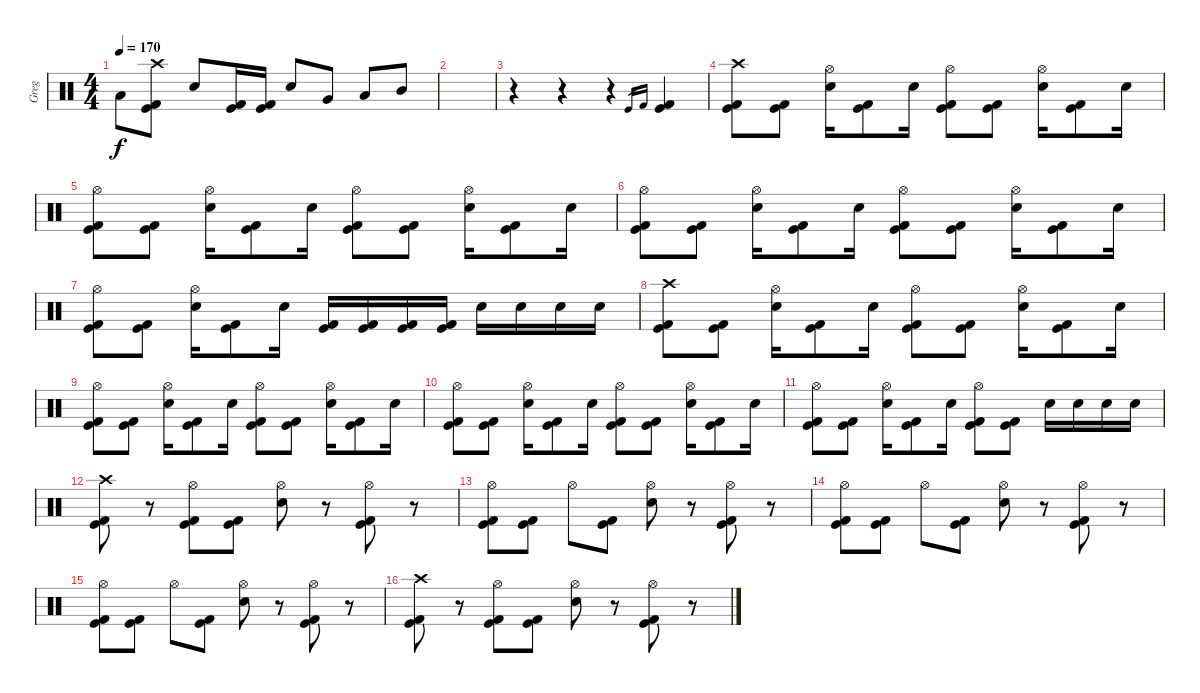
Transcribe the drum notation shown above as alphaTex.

\track ("Greg" "Greg") {instrument percussion}
\staff {score}
\articulation defaults
\ts (4 4)
\tempo 170
\clef neutral
\ks c "Low Tom (hit)".8{dy f}
("Crash high (hit)" "Kick (hit)" "Kick (hit) 2").8 "Snare (hit) 2".8 ("Kick (hit)" "Kick (hit) 2").16 ("Kick (hit)" "Kick (hit) 2").16 "Snare (hit) 2".8 "Very Low Tom (hit)".8 "Low Tom (hit)".8 "Mid Tom (hit)".8 |
|
r.4 r.4 r.4 "Kick (hit)".16{gr} "Kick (hit) 2".16{gr} ("Kick (hit)" "Kick (hit) 2").4 |
("Crash high (hit)" "Kick (hit)" "Kick (hit) 2").8 ("Kick (hit)" "Kick (hit) 2").8 ("Hi-Hat (open)" "Snare (hit) 2").16 ("Kick (hit)" "Kick (hit) 2").8 "Snare (hit) 2".16 ("Hi-Hat (open)" "Kick (hit)" "Kick (hit) 2").8 ("Kick (hit)" "Kick (hit) 2").8 ("Hi-Hat (open)" "Snare (hit) 2").16 ("Kick (hit)" "Kick (hit) 2").8 "Snare (hit) 2".16 |
("Hi-Hat (open)" "Kick (hit)" "Kick (hit) 2").8 ("Kick (hit)" "Kick (hit) 2").8 ("Hi-Hat (open)" "Snare (hit) 2").16 ("Kick (hit)" "Kick (hit) 2").8 "Snare (hit) 2".16 ("Hi-Hat (open)" "Kick (hit)" "Kick (hit) 2").8 ("Kick (hit)" "Kick (hit) 2").8 ("Hi-Hat (open)" "Snare (hit) 2").16 ("Kick (hit)" "Kick (hit) 2").8 "Snare (hit) 2".16 |
("Hi-Hat (open)" "Kick (hit)" "Kick (hit) 2").8 ("Kick (hit)" "Kick (hit) 2").8 ("Hi-Hat (open)" "Snare (hit) 2").16 ("Kick (hit)" "Kick (hit) 2").8 "Snare (hit) 2".16 ("Hi-Hat (open)" "Kick (hit)" "Kick (hit) 2").8 ("Kick (hit)" "Kick (hit) 2").8 ("Hi-Hat (open)" "Snare (hit) 2").16 ("Kick (hit)" "Kick (hit) 2").8 "Snare (hit) 2".16 |
("Hi-Hat (open)" "Kick (hit)" "Kick (hit) 2").8 ("Kick (hit)" "Kick (hit) 2").8 ("Hi-Hat (open)" "Snare (hit) 2").16 ("Kick (hit)" "Kick (hit) 2").8 "Snare (hit) 2".16 ("Kick (hit)" "Kick (hit) 2").16 ("Kick (hit)" "Kick (hit) 2").16 ("Kick (hit)" "Kick (hit) 2").16 ("Kick (hit)" "Kick (hit) 2").16 "Snare (hit) 2".16 "Snare (hit) 2".16 "Snare (hit) 2".16 "Snare (hit) 2".16 |
("Crash high (hit)" "Kick (hit)" "Kick (hit) 2").8 ("Kick (hit)" "Kick (hit) 2").8 ("Hi-Hat (open)" "Snare (hit) 2").16 ("Kick (hit)" "Kick (hit) 2").8 "Snare (hit) 2".16 ("Hi-Hat (open)" "Kick (hit)" "Kick (hit) 2").8 ("Kick (hit)" "Kick (hit) 2").8 ("Hi-Hat (open)" "Snare (hit) 2").16 ("Kick (hit)" "Kick (hit) 2").8 "Snare (hit) 2".16 |
("Hi-Hat (open)" "Kick (hit)" "Kick (hit) 2").8 ("Kick (hit)" "Kick (hit) 2").8 ("Hi-Hat (open)" "Snare (hit) 2").16 ("Kick (hit)" "Kick (hit) 2").8 "Snare (hit) 2".16 ("Hi-Hat (open)" "Kick (hit)" "Kick (hit) 2").8 ("Kick (hit)" "Kick (hit) 2").8 ("Hi-Hat (open)" "Snare (hit) 2").16 ("Kick (hit)" "Kick (hit) 2").8 "Snare (hit) 2".16 |
("Hi-Hat (open)" "Kick (hit)" "Kick (hit) 2").8 ("Kick (hit)" "Kick (hit) 2").8 ("Hi-Hat (open)" "Snare (hit) 2").16 ("Kick (hit)" "Kick (hit) 2").8 "Snare (hit) 2".16 ("Hi-Hat (open)" "Kick (hit)" "Kick (hit) 2").8 ("Kick (hit)" "Kick (hit) 2").8 ("Hi-Hat (open)" "Snare (hit) 2").16 ("Kick (hit)" "Kick (hit) 2").8 "Snare (hit) 2".16 |
("Hi-Hat (open)" "Kick (hit)" "Kick (hit) 2").8 ("Kick (hit)" "Kick (hit) 2").8 ("Hi-Hat (open)" "Snare (hit) 2").16 ("Kick (hit)" "Kick (hit) 2").8 "Snare (hit) 2".16 ("Hi-Hat (open)" "Kick (hit)" "Kick (hit) 2").8 ("Kick (hit)" "Kick (hit) 2").8 "Snare (hit) 2".16 "Snare (hit) 2".16 "Snare (hit) 2".16 "Snare (hit) 2".16 |
("Crash high (hit)" "Kick (hit)" "Kick (hit) 2").8 r.8 ("Hi-Hat (open)" "Kick (hit)" "Kick (hit) 2").8 ("Kick (hit)" "Kick (hit) 2").8 ("Hi-Hat (open)" "Snare (hit) 2").8 r.8 ("Hi-Hat (open)" "Kick (hit)" "Kick (hit) 2").8 r.8 |
("Hi-Hat (open)" "Kick (hit)" "Kick (hit) 2").8 ("Kick (hit)" "Kick (hit) 2").8 "Hi-Hat (open)".8 ("Kick (hit)" "Kick (hit) 2").8 ("Hi-Hat (open)" "Snare (hit) 2").8 r.8 ("Hi-Hat (open)" "Kick (hit)" "Kick (hit) 2").8 r.8 |
("Hi-Hat (open)" "Kick (hit)" "Kick (hit) 2").8 ("Kick (hit)" "Kick (hit) 2").8 "Hi-Hat (open)".8 ("Kick (hit)" "Kick (hit) 2").8 ("Hi-Hat (open)" "Snare (hit) 2").8 r.8 ("Hi-Hat (open)" "Kick (hit)" "Kick (hit) 2").8 r.8 |
("Hi-Hat (open)" "Kick (hit)" "Kick (hit) 2").8 ("Kick (hit)" "Kick (hit) 2").8 "Hi-Hat (open)".8 ("Kick (hit)" "Kick (hit) 2").8 ("Hi-Hat (open)" "Snare (hit) 2").8 r.8 ("Hi-Hat (open)" "Kick (hit)" "Kick (hit) 2").8 r.8 |
("Crash high (hit)" "Kick (hit)" "Kick (hit) 2").8 r.8 ("Hi-Hat (open)" "Kick (hit)" "Kick (hit) 2").8 ("Kick (hit)" "Kick (hit) 2").8 ("Hi-Hat (open)" "Snare (hit) 2").8 r.8 ("Hi-Hat (open)" "Kick (hit)" "Kick (hit) 2").8 r.8
